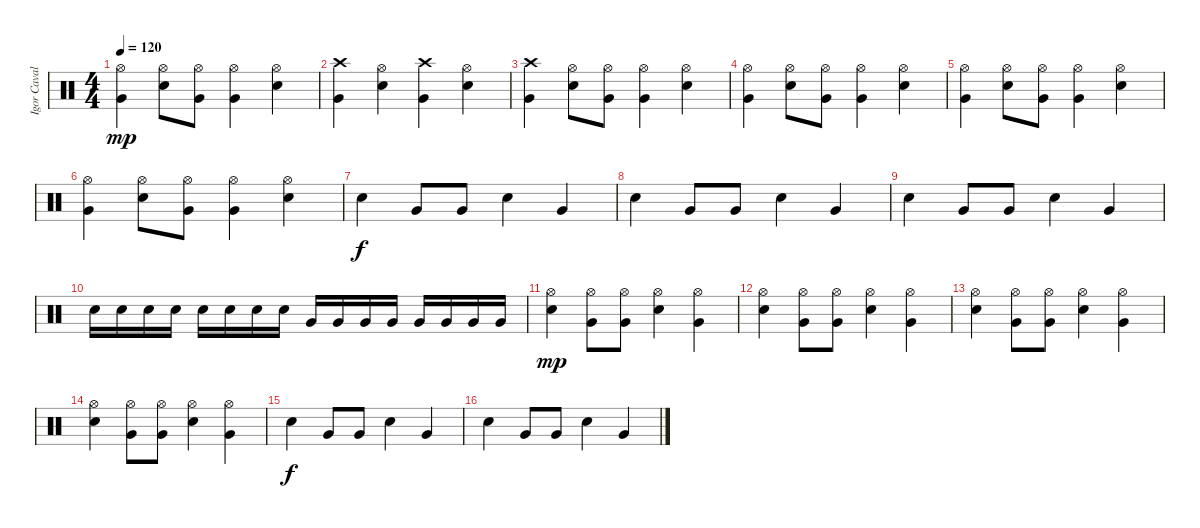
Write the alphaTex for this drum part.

\track ("Igor Cavalera" "Igor Caval") {instrument percussion}
\staff {score}
\articulation defaults
\ts (4 4)
\tempo 120
\clef neutral
\ks c
("Hi-Hat (open)" "Very Low Tom (hit)").4{dy mp} ("Hi-Hat (open)" "Snare (hit) 2").8 ("Hi-Hat (open)" "Very Low Tom (hit)").8 ("Hi-Hat (open)" "Very Low Tom (hit)").4 ("Hi-Hat (open)" "Snare (hit) 2").4 |
("Crash high (hit)" "Very Low Tom (hit)").4 ("Hi-Hat (open)" "Snare (hit) 2").4 ("Crash high (hit)" "Very Low Tom (hit)").4 ("Hi-Hat (open)" "Snare (hit) 2").4 |
("Crash high (hit)" "Very Low Tom (hit)").4 ("Hi-Hat (open)" "Snare (hit) 2").8 ("Hi-Hat (open)" "Very Low Tom (hit)").8 ("Hi-Hat (open)" "Very Low Tom (hit)").4 ("Hi-Hat (open)" "Snare (hit) 2").4 |
("Hi-Hat (open)" "Very Low Tom (hit)").4 ("Hi-Hat (open)" "Snare (hit) 2").8 ("Hi-Hat (open)" "Very Low Tom (hit)").8 ("Hi-Hat (open)" "Very Low Tom (hit)").4 ("Hi-Hat (open)" "Snare (hit) 2").4 |
("Hi-Hat (open)" "Very Low Tom (hit)").4 ("Hi-Hat (open)" "Snare (hit) 2").8 ("Hi-Hat (open)" "Very Low Tom (hit)").8 ("Hi-Hat (open)" "Very Low Tom (hit)").4 ("Hi-Hat (open)" "Snare (hit) 2").4 |
("Hi-Hat (open)" "Very Low Tom (hit)").4 ("Hi-Hat (open)" "Snare (hit) 2").8 ("Hi-Hat (open)" "Very Low Tom (hit)").8 ("Hi-Hat (open)" "Very Low Tom (hit)").4 ("Hi-Hat (open)" "Snare (hit) 2").4 |
"Snare (hit) 2".4{dy f} "Very Low Tom (hit)".8 "Very Low Tom (hit)".8 "Snare (hit) 2".4 "Very Low Tom (hit)".4 |
"Snare (hit) 2".4 "Very Low Tom (hit)".8 "Very Low Tom (hit)".8 "Snare (hit) 2".4 "Very Low Tom (hit)".4 |
"Snare (hit) 2".4 "Very Low Tom (hit)".8 "Very Low Tom (hit)".8 "Snare (hit) 2".4 "Very Low Tom (hit)".4 |
"Snare (hit) 2".16 "Snare (hit) 2".16 "Snare (hit) 2".16 "Snare (hit) 2".16 "Snare (hit) 2".16 "Snare (hit) 2".16 "Snare (hit) 2".16 "Snare (hit) 2".16 "Very Low Tom (hit)".16 "Very Low Tom (hit)".16 "Very Low Tom (hit)".16 "Very Low Tom (hit)".16 "Very Low Tom (hit)".16 "Very Low Tom (hit)".16 "Very Low Tom (hit)".16 "Very Low Tom (hit)".16 |
("Hi-Hat (open)" "Snare (hit) 2").4{dy mp} ("Hi-Hat (open)" "Very Low Tom (hit)").8 ("Hi-Hat (open)" "Very Low Tom (hit)").8 ("Hi-Hat (open)" "Snare (hit) 2").4 ("Hi-Hat (open)" "Very Low Tom (hit)").4 |
("Hi-Hat (open)" "Snare (hit) 2").4 ("Hi-Hat (open)" "Very Low Tom (hit)").8 ("Hi-Hat (open)" "Very Low Tom (hit)").8 ("Hi-Hat (open)" "Snare (hit) 2").4 ("Hi-Hat (open)" "Very Low Tom (hit)").4 |
("Hi-Hat (open)" "Snare (hit) 2").4 ("Hi-Hat (open)" "Very Low Tom (hit)").8 ("Hi-Hat (open)" "Very Low Tom (hit)").8 ("Hi-Hat (open)" "Snare (hit) 2").4 ("Hi-Hat (open)" "Very Low Tom (hit)").4 |
("Hi-Hat (open)" "Snare (hit) 2").4 ("Hi-Hat (open)" "Very Low Tom (hit)").8 ("Hi-Hat (open)" "Very Low Tom (hit)").8 ("Hi-Hat (open)" "Snare (hit) 2").4 ("Hi-Hat (open)" "Very Low Tom (hit)").4 |
"Snare (hit) 2".4{dy f} "Very Low Tom (hit)".8 "Very Low Tom (hit)".8 "Snare (hit) 2".4 "Very Low Tom (hit)".4 |
"Snare (hit) 2".4 "Very Low Tom (hit)".8 "Very Low Tom (hit)".8 "Snare (hit) 2".4 "Very Low Tom (hit)".4
